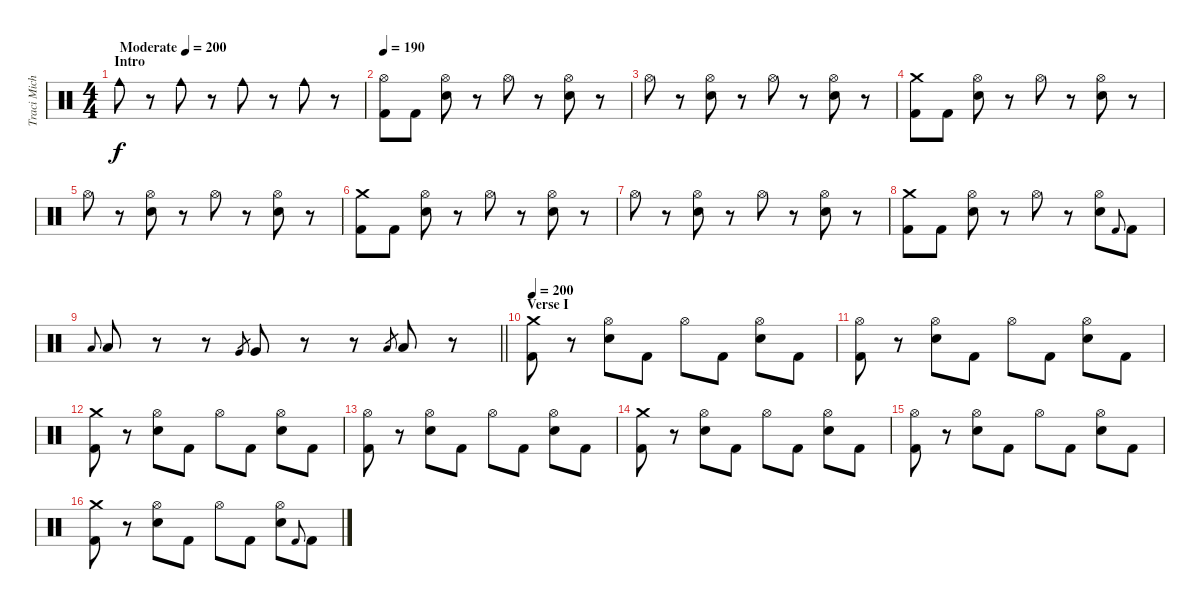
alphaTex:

\track ("Traci Michaelz" "Traci Mich") {instrument percussion}
\staff {score}
\articulation defaults
\ts (4 4)
\section ("" "Intro")
\tempo (200 "Moderate")
\tempo 190
\tempo (200 "Moderate")
\clef neutral
\ks c "Cowbell medium (hit)".8{dy f}
r.8 "Cowbell medium (hit)".8 r.8 "Cowbell medium (hit)".8 r.8 "Cowbell medium (hit)".8 r.8 |
\tempo 190
("Hi-Hat (open)" "Kick (hit) 2").8 "Kick (hit) 2".8 ("Hi-Hat (open)" "Snare (hit) 2").8 r.8 "Hi-Hat (open)".8 r.8 ("Hi-Hat (open)" "Snare (hit) 2").8 r.8 |
"Hi-Hat (open)".8 r.8 ("Hi-Hat (open)" "Snare (hit) 2").8 r.8 "Hi-Hat (open)".8 r.8 ("Hi-Hat (open)" "Snare (hit) 2").8 r.8 |
("Crash medium (hit)" "Kick (hit) 2").8 "Kick (hit) 2".8 ("Hi-Hat (open)" "Snare (hit) 2").8 r.8 "Hi-Hat (open)".8 r.8 ("Hi-Hat (open)" "Snare (hit) 2").8 r.8 |
"Hi-Hat (open)".8 r.8 ("Hi-Hat (open)" "Snare (hit) 2").8 r.8 "Hi-Hat (open)".8 r.8 ("Hi-Hat (open)" "Snare (hit) 2").8 r.8 |
("Crash medium (hit)" "Kick (hit) 2").8 "Kick (hit) 2".8 ("Hi-Hat (open)" "Snare (hit) 2").8 r.8 "Hi-Hat (open)".8 r.8 ("Hi-Hat (open)" "Snare (hit) 2").8 r.8 |
"Hi-Hat (open)".8 r.8 ("Hi-Hat (open)" "Snare (hit) 2").8 r.8 "Hi-Hat (open)".8 r.8 ("Hi-Hat (open)" "Snare (hit) 2").8 r.8 |
("Crash medium (hit)" "Kick (hit) 2").8 "Kick (hit) 2".8 ("Hi-Hat (open)" "Snare (hit) 2").8 r.8 "Hi-Hat (open)".8 r.8 ("Hi-Hat (open)" "Snare (hit) 2").8 "Kick (hit) 2".8{gr onbeat} "Kick (hit) 2".8 |
\barLineRight lightlight "Low Tom (hit)".8{gr onbeat} "Low Tom (hit)".8
r.8 r.8 "Very Low Tom (hit)".8{gr} "Very Low Tom (hit)".8 r.8 r.8 "Low Floor Tom (hit)".8{gr} "Low Floor Tom (hit)".8 r.8 |
\section ("" "Verse I")
\tempo 200
("Crash medium (hit)" "Kick (hit) 2").8 r.8 ("Hi-Hat (open)" "Snare (hit) 2").8 "Kick (hit) 2".8 "Hi-Hat (open)".8 "Kick (hit) 2".8 ("Hi-Hat (open)" "Snare (hit) 2").8 "Kick (hit) 2".8 |
("Hi-Hat (open)" "Kick (hit) 2").8 r.8 ("Hi-Hat (open)" "Snare (hit) 2").8 "Kick (hit) 2".8 "Hi-Hat (open)".8 "Kick (hit) 2".8 ("Hi-Hat (open)" "Snare (hit) 2").8 "Kick (hit) 2".8 |
("Crash medium (hit)" "Kick (hit) 2").8 r.8 ("Hi-Hat (open)" "Snare (hit) 2").8 "Kick (hit) 2".8 "Hi-Hat (open)".8 "Kick (hit) 2".8 ("Hi-Hat (open)" "Snare (hit) 2").8 "Kick (hit) 2".8 |
("Hi-Hat (open)" "Kick (hit) 2").8 r.8 ("Hi-Hat (open)" "Snare (hit) 2").8 "Kick (hit) 2".8 "Hi-Hat (open)".8 "Kick (hit) 2".8 ("Hi-Hat (open)" "Snare (hit) 2").8 "Kick (hit) 2".8 |
("Crash medium (hit)" "Kick (hit) 2").8 r.8 ("Hi-Hat (open)" "Snare (hit) 2").8 "Kick (hit) 2".8 "Hi-Hat (open)".8 "Kick (hit) 2".8 ("Hi-Hat (open)" "Snare (hit) 2").8 "Kick (hit) 2".8 |
("Hi-Hat (open)" "Kick (hit) 2").8 r.8 ("Hi-Hat (open)" "Snare (hit) 2").8 "Kick (hit) 2".8 "Hi-Hat (open)".8 "Kick (hit) 2".8 ("Hi-Hat (open)" "Snare (hit) 2").8 "Kick (hit) 2".8 |
("Crash medium (hit)" "Kick (hit) 2").8 r.8 ("Hi-Hat (open)" "Snare (hit) 2").8 "Kick (hit) 2".8 "Hi-Hat (open)".8 "Kick (hit) 2".8 ("Hi-Hat (open)" "Snare (hit) 2").8 "Kick (hit) 2".8{gr onbeat} "Kick (hit) 2".8
